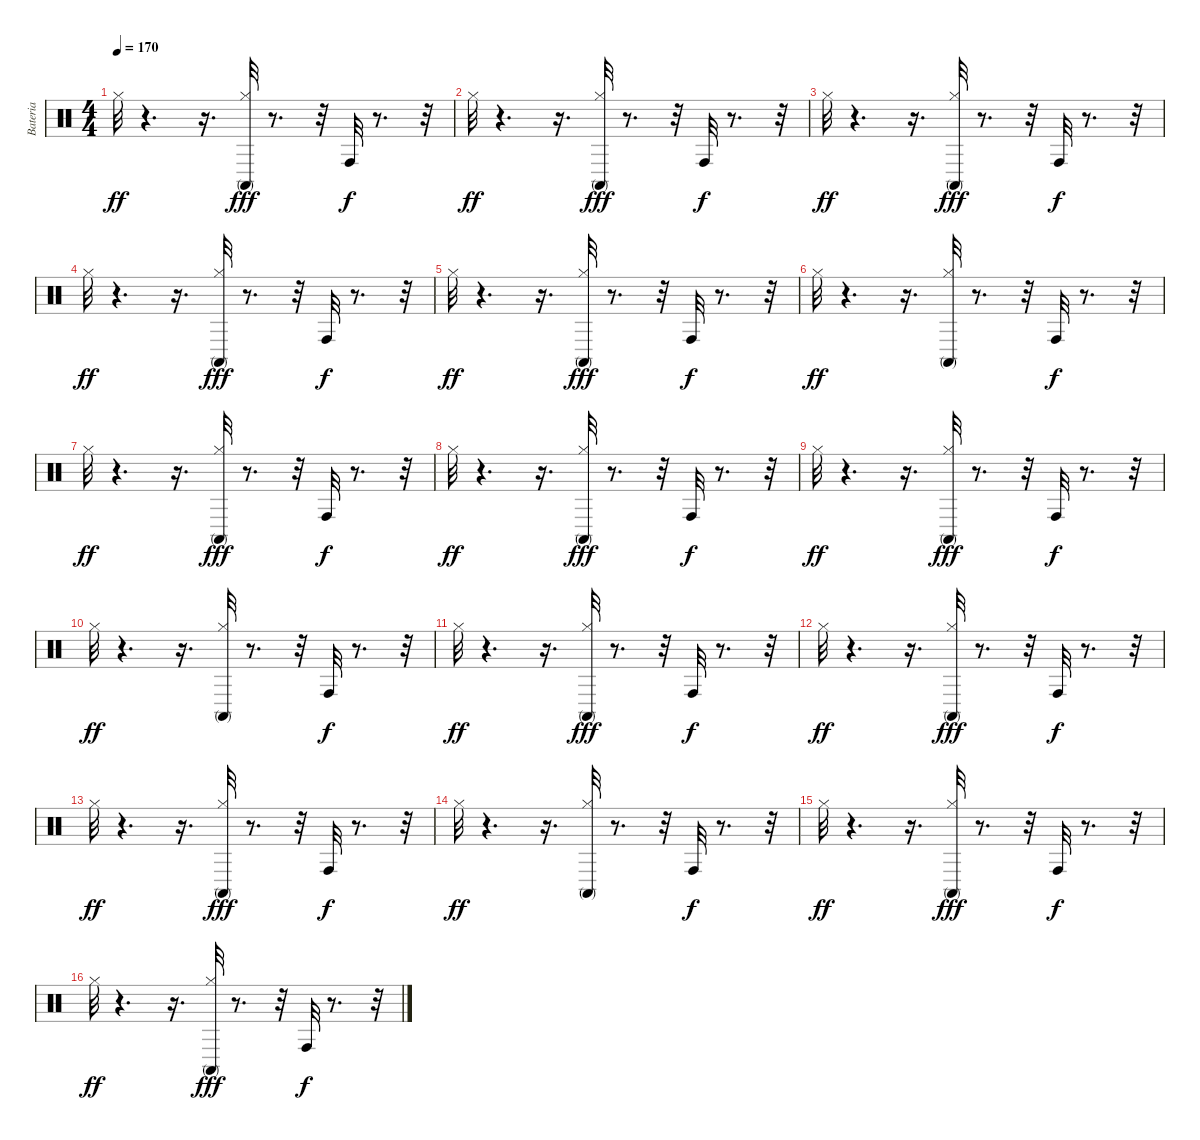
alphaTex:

\track ("Bateria" "Bateria") {instrument percussion}
\staff {score}
\articulation defaults
\ts (4 4)
\tempo 170
\clef neutral
\ks c "Hi-Hat (closed)".32{dy ff}
r.4{d} r.16{d} ("Hi-Hat (closed)" "Conga high (mute)").32{dy fff} r.8{d} r.32 "Conga high (hit)".32{dy f} r.8{d} r.32 |
"Hi-Hat (closed)".32{dy ff} r.4{d} r.16{d} ("Hi-Hat (closed)" "Conga high (mute)").32{dy fff} r.8{d} r.32 "Conga high (hit)".32{dy f} r.8{d} r.32 |
"Hi-Hat (closed)".32{dy ff} r.4{d} r.16{d} ("Hi-Hat (closed)" "Conga high (mute)").32{dy fff} r.8{d} r.32 "Conga high (hit)".32{dy f} r.8{d} r.32 |
"Hi-Hat (closed)".32{dy ff} r.4{d} r.16{d} ("Hi-Hat (closed)" "Conga high (mute)").32{dy fff} r.8{d} r.32 "Conga high (hit)".32{dy f} r.8{d} r.32 |
"Hi-Hat (closed)".32{dy ff} r.4{d} r.16{d} ("Hi-Hat (closed)" "Conga high (mute)").32{dy fff} r.8{d} r.32 "Conga high (hit)".32{dy f} r.8{d} r.32 |
"Hi-Hat (closed)".32{dy ff} r.4{d} r.16{d} ("Conga high (mute)" "Hi-Hat (closed)").32 r.8{d} r.32 "Conga high (hit)".32{dy f} r.8{d} r.32 |
"Hi-Hat (closed)".32{dy ff} r.4{d} r.16{d} ("Hi-Hat (closed)" "Conga high (mute)").32{dy fff} r.8{d} r.32 "Conga high (hit)".32{dy f} r.8{d} r.32 |
"Hi-Hat (closed)".32{dy ff} r.4{d} r.16{d} ("Hi-Hat (closed)" "Conga high (mute)").32{dy fff} r.8{d} r.32 "Conga high (hit)".32{dy f} r.8{d} r.32 |
"Hi-Hat (closed)".32{dy ff} r.4{d} r.16{d} ("Hi-Hat (closed)" "Conga high (mute)").32{dy fff} r.8{d} r.32 "Conga high (hit)".32{dy f} r.8{d} r.32 |
"Hi-Hat (closed)".32{dy ff} r.4{d} r.16{d} ("Conga high (mute)" "Hi-Hat (closed)").32 r.8{d} r.32 "Conga high (hit)".32{dy f} r.8{d} r.32 |
"Hi-Hat (closed)".32{dy ff} r.4{d} r.16{d} ("Hi-Hat (closed)" "Conga high (mute)").32{dy fff} r.8{d} r.32 "Conga high (hit)".32{dy f} r.8{d} r.32 |
"Hi-Hat (closed)".32{dy ff} r.4{d} r.16{d} ("Hi-Hat (closed)" "Conga high (mute)").32{dy fff} r.8{d} r.32 "Conga high (hit)".32{dy f} r.8{d} r.32 |
"Hi-Hat (closed)".32{dy ff} r.4{d} r.16{d} ("Hi-Hat (closed)" "Conga high (mute)").32{dy fff} r.8{d} r.32 "Conga high (hit)".32{dy f} r.8{d} r.32 |
"Hi-Hat (closed)".32{dy ff} r.4{d} r.16{d} ("Conga high (mute)" "Hi-Hat (closed)").32 r.8{d} r.32 "Conga high (hit)".32{dy f} r.8{d} r.32 |
"Hi-Hat (closed)".32{dy ff} r.4{d} r.16{d} ("Hi-Hat (closed)" "Conga high (mute)").32{dy fff} r.8{d} r.32 "Conga high (hit)".32{dy f} r.8{d} r.32 |
"Hi-Hat (closed)".32{dy ff} r.4{d} r.16{d} ("Hi-Hat (closed)" "Conga high (mute)").32{dy fff} r.8{d} r.32 "Conga high (hit)".32{dy f} r.8{d} r.32
